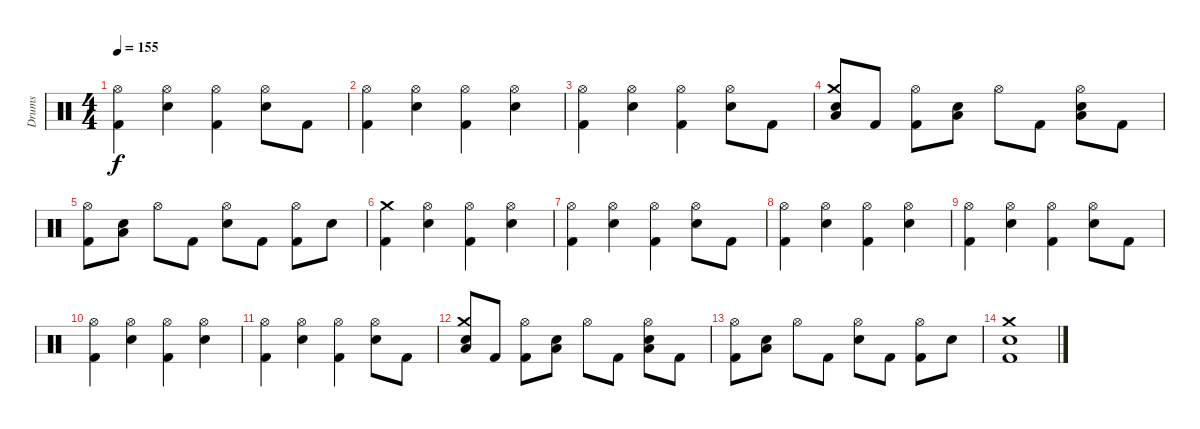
\track ("Drums" "Drums") {instrument percussion}
\staff {score}
\articulation defaults
\ts (4 4)
\tempo 155
\clef neutral
\ks c
("Hi-Hat (open)" "Kick (hit) 2").4{dy f} ("Hi-Hat (open)" "Snare (hit) 2").4 ("Hi-Hat (open)" "Kick (hit) 2").4 ("Hi-Hat (open)" "Snare (hit) 2").8 "Kick (hit) 2".8 |
("Hi-Hat (open)" "Kick (hit) 2").4 ("Hi-Hat (open)" "Snare (hit) 2").4 ("Hi-Hat (open)" "Kick (hit) 2").4 ("Hi-Hat (open)" "Snare (hit) 2").4 |
("Hi-Hat (open)" "Kick (hit) 2").4 ("Hi-Hat (open)" "Snare (hit) 2").4 ("Hi-Hat (open)" "Kick (hit) 2").4 ("Hi-Hat (open)" "Snare (hit) 2").8 "Kick (hit) 2".8 |
("Crash medium (hit)" "Snare (hit) 2" "Low Floor Tom (hit)").8 "Kick (hit) 2".8 ("Hi-Hat (open)" "Kick (hit) 2").8 ("Snare (hit) 2" "Low Floor Tom (hit)").8 "Hi-Hat (open)".8 "Kick (hit) 2".8 ("Hi-Hat (open)" "Snare (hit) 2" "Low Floor Tom (hit)").8 "Kick (hit) 2".8 |
("Hi-Hat (open)" "Kick (hit) 2").8 ("Snare (hit) 2" "Low Floor Tom (hit)").8 "Hi-Hat (open)".8 "Kick (hit) 2".8 ("Hi-Hat (open)" "Snare (hit) 2").8 "Kick (hit) 2".8 ("Hi-Hat (open)" "Kick (hit) 2").8 "Snare (hit) 2".8 |
("Crash medium (hit)" "Kick (hit) 2").4 ("Hi-Hat (open)" "Snare (hit) 2").4 ("Hi-Hat (open)" "Kick (hit) 2").4 ("Hi-Hat (open)" "Snare (hit) 2").4 |
("Hi-Hat (open)" "Kick (hit) 2").4 ("Hi-Hat (open)" "Snare (hit) 2").4 ("Hi-Hat (open)" "Kick (hit) 2").4 ("Hi-Hat (open)" "Snare (hit) 2").8 "Kick (hit) 2".8 |
("Hi-Hat (open)" "Kick (hit) 2").4 ("Hi-Hat (open)" "Snare (hit) 2").4 ("Hi-Hat (open)" "Kick (hit) 2").4 ("Hi-Hat (open)" "Snare (hit) 2").4 |
("Hi-Hat (open)" "Kick (hit) 2").4 ("Hi-Hat (open)" "Snare (hit) 2").4 ("Hi-Hat (open)" "Kick (hit) 2").4 ("Hi-Hat (open)" "Snare (hit) 2").8 "Kick (hit) 2".8 |
("Hi-Hat (open)" "Kick (hit) 2").4 ("Hi-Hat (open)" "Snare (hit) 2").4 ("Hi-Hat (open)" "Kick (hit) 2").4 ("Hi-Hat (open)" "Snare (hit) 2").4 |
("Hi-Hat (open)" "Kick (hit) 2").4 ("Hi-Hat (open)" "Snare (hit) 2").4 ("Hi-Hat (open)" "Kick (hit) 2").4 ("Hi-Hat (open)" "Snare (hit) 2").8 "Kick (hit) 2".8 |
("Crash medium (hit)" "Snare (hit) 2" "Low Floor Tom (hit)").8 "Kick (hit) 2".8 ("Hi-Hat (open)" "Kick (hit) 2").8 ("Snare (hit) 2" "Low Floor Tom (hit)").8 "Hi-Hat (open)".8 "Kick (hit) 2".8 ("Hi-Hat (open)" "Snare (hit) 2" "Low Floor Tom (hit)").8 "Kick (hit) 2".8 |
("Hi-Hat (open)" "Kick (hit) 2").8 ("Snare (hit) 2" "Low Floor Tom (hit)").8 "Hi-Hat (open)".8 "Kick (hit) 2".8 ("Hi-Hat (open)" "Snare (hit) 2").8 "Kick (hit) 2".8 ("Hi-Hat (open)" "Kick (hit) 2").8 "Snare (hit) 2".8 |
("Crash medium (hit)" "Snare (hit) 2" "Kick (hit) 2").1
